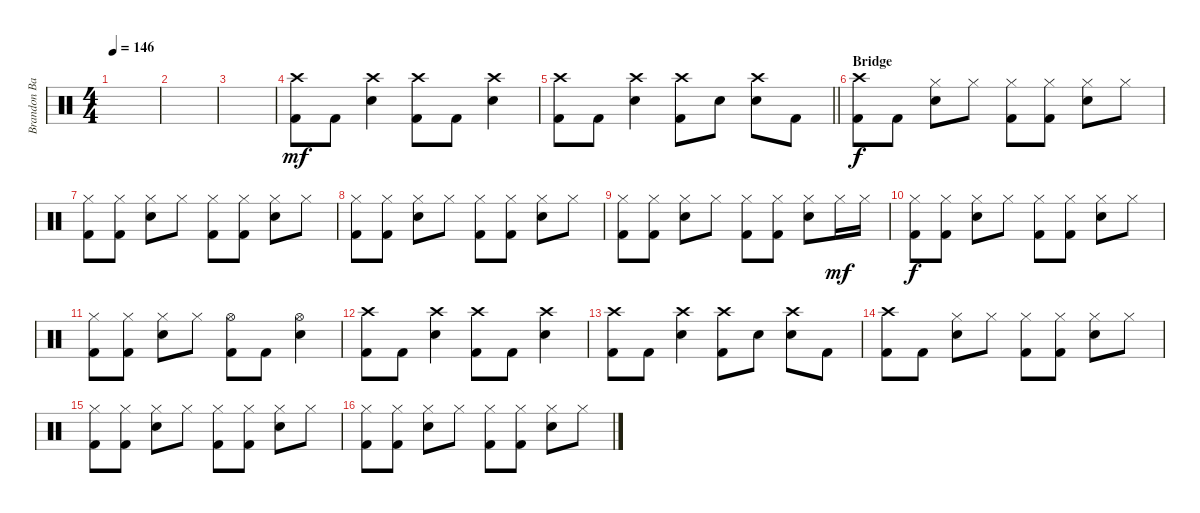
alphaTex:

\track ("Brandon Barnes - Drums" "Brandon Ba") {instrument percussion}
\staff {score}
\articulation defaults
\ts (4 4)
\tempo 146
\clef neutral
\ks c
|
|
|
("Crash high (hit)" "Kick (hit) 2").8{dy mf} "Kick (hit) 2".8 ("Snare (hit) 2" "Crash high (hit)").4 ("Crash high (hit)" "Kick (hit) 2").8 "Kick (hit) 2".8 ("Snare (hit) 2" "Crash high (hit)").4 |
\barLineRight lightlight
("Crash high (hit)" "Kick (hit) 2").8 "Kick (hit) 2".8 ("Snare (hit) 2" "Crash high (hit)").4 ("Crash high (hit)" "Kick (hit) 2").8 "Snare (hit) 2".8 ("Snare (hit) 2" "Crash high (hit)").8 "Kick (hit) 2".8 |
\section ("" "Bridge")
("Crash high (hit)" "Kick (hit) 2").8{dy f} "Kick (hit) 2".8 ("Snare (hit) 2" "Hi-Hat (closed)").8 "Hi-Hat (closed)".8 ("Kick (hit) 2" "Hi-Hat (closed)").8 ("Kick (hit) 2" "Hi-Hat (closed)").8 ("Snare (hit) 2" "Hi-Hat (closed)").8 "Hi-Hat (closed)".8 |
("Kick (hit) 2" "Hi-Hat (closed)").8 ("Kick (hit) 2" "Hi-Hat (closed)").8 ("Snare (hit) 2" "Hi-Hat (closed)").8 "Hi-Hat (closed)".8 ("Kick (hit) 2" "Hi-Hat (closed)").8 ("Kick (hit) 2" "Hi-Hat (closed)").8 ("Snare (hit) 2" "Hi-Hat (closed)").8 "Hi-Hat (closed)".8 |
("Kick (hit) 2" "Hi-Hat (closed)").8 ("Kick (hit) 2" "Hi-Hat (closed)").8 ("Snare (hit) 2" "Hi-Hat (closed)").8 "Hi-Hat (closed)".8 ("Kick (hit) 2" "Hi-Hat (closed)").8 ("Kick (hit) 2" "Hi-Hat (closed)").8 ("Snare (hit) 2" "Hi-Hat (closed)").8 "Hi-Hat (closed)".8 |
("Kick (hit) 2" "Hi-Hat (closed)").8 ("Kick (hit) 2" "Hi-Hat (closed)").8 ("Snare (hit) 2" "Hi-Hat (closed)").8 "Hi-Hat (closed)".8 ("Kick (hit) 2" "Hi-Hat (closed)").8 ("Kick (hit) 2" "Hi-Hat (closed)").8 ("Snare (hit) 2" "Hi-Hat (closed)").8 "Hi-Hat (closed)".16{dy mf} "Hi-Hat (closed)".16 |
("Kick (hit) 2" "Hi-Hat (closed)").8{dy f} ("Kick (hit) 2" "Hi-Hat (closed)").8 ("Snare (hit) 2" "Hi-Hat (closed)").8 "Hi-Hat (closed)".8 ("Kick (hit) 2" "Hi-Hat (closed)").8 ("Kick (hit) 2" "Hi-Hat (closed)").8 ("Snare (hit) 2" "Hi-Hat (closed)").8 "Hi-Hat (closed)".8 |
("Kick (hit) 2" "Hi-Hat (closed)").8 ("Kick (hit) 2" "Hi-Hat (closed)").8 ("Snare (hit) 2" "Hi-Hat (closed)").8 "Hi-Hat (closed)".8 ("Kick (hit) 2" "Hi-Hat (open)").8 "Kick (hit) 2".8 ("Snare (hit) 2" "Hi-Hat (open)").4 |
("Crash high (hit)" "Kick (hit) 2").8 "Kick (hit) 2".8 ("Snare (hit) 2" "Crash high (hit)").4 ("Crash high (hit)" "Kick (hit) 2").8 "Kick (hit) 2".8 ("Snare (hit) 2" "Crash high (hit)").4 |
("Crash high (hit)" "Kick (hit) 2").8 "Kick (hit) 2".8 ("Snare (hit) 2" "Crash high (hit)").4 ("Crash high (hit)" "Kick (hit) 2").8 "Snare (hit) 2".8 ("Snare (hit) 2" "Crash high (hit)").8 "Kick (hit) 2".8 |
("Crash high (hit)" "Kick (hit) 2").8 "Kick (hit) 2".8 ("Snare (hit) 2" "Hi-Hat (closed)").8 "Hi-Hat (closed)".8 ("Kick (hit) 2" "Hi-Hat (closed)").8 ("Kick (hit) 2" "Hi-Hat (closed)").8 ("Snare (hit) 2" "Hi-Hat (closed)").8 "Hi-Hat (closed)".8 |
("Kick (hit) 2" "Hi-Hat (closed)").8 ("Kick (hit) 2" "Hi-Hat (closed)").8 ("Snare (hit) 2" "Hi-Hat (closed)").8 "Hi-Hat (closed)".8 ("Kick (hit) 2" "Hi-Hat (closed)").8 ("Kick (hit) 2" "Hi-Hat (closed)").8 ("Snare (hit) 2" "Hi-Hat (closed)").8 "Hi-Hat (closed)".8 |
("Kick (hit) 2" "Hi-Hat (closed)").8 ("Kick (hit) 2" "Hi-Hat (closed)").8 ("Snare (hit) 2" "Hi-Hat (closed)").8 "Hi-Hat (closed)".8 ("Kick (hit) 2" "Hi-Hat (closed)").8 ("Kick (hit) 2" "Hi-Hat (closed)").8 ("Snare (hit) 2" "Hi-Hat (closed)").8 "Hi-Hat (closed)".8
